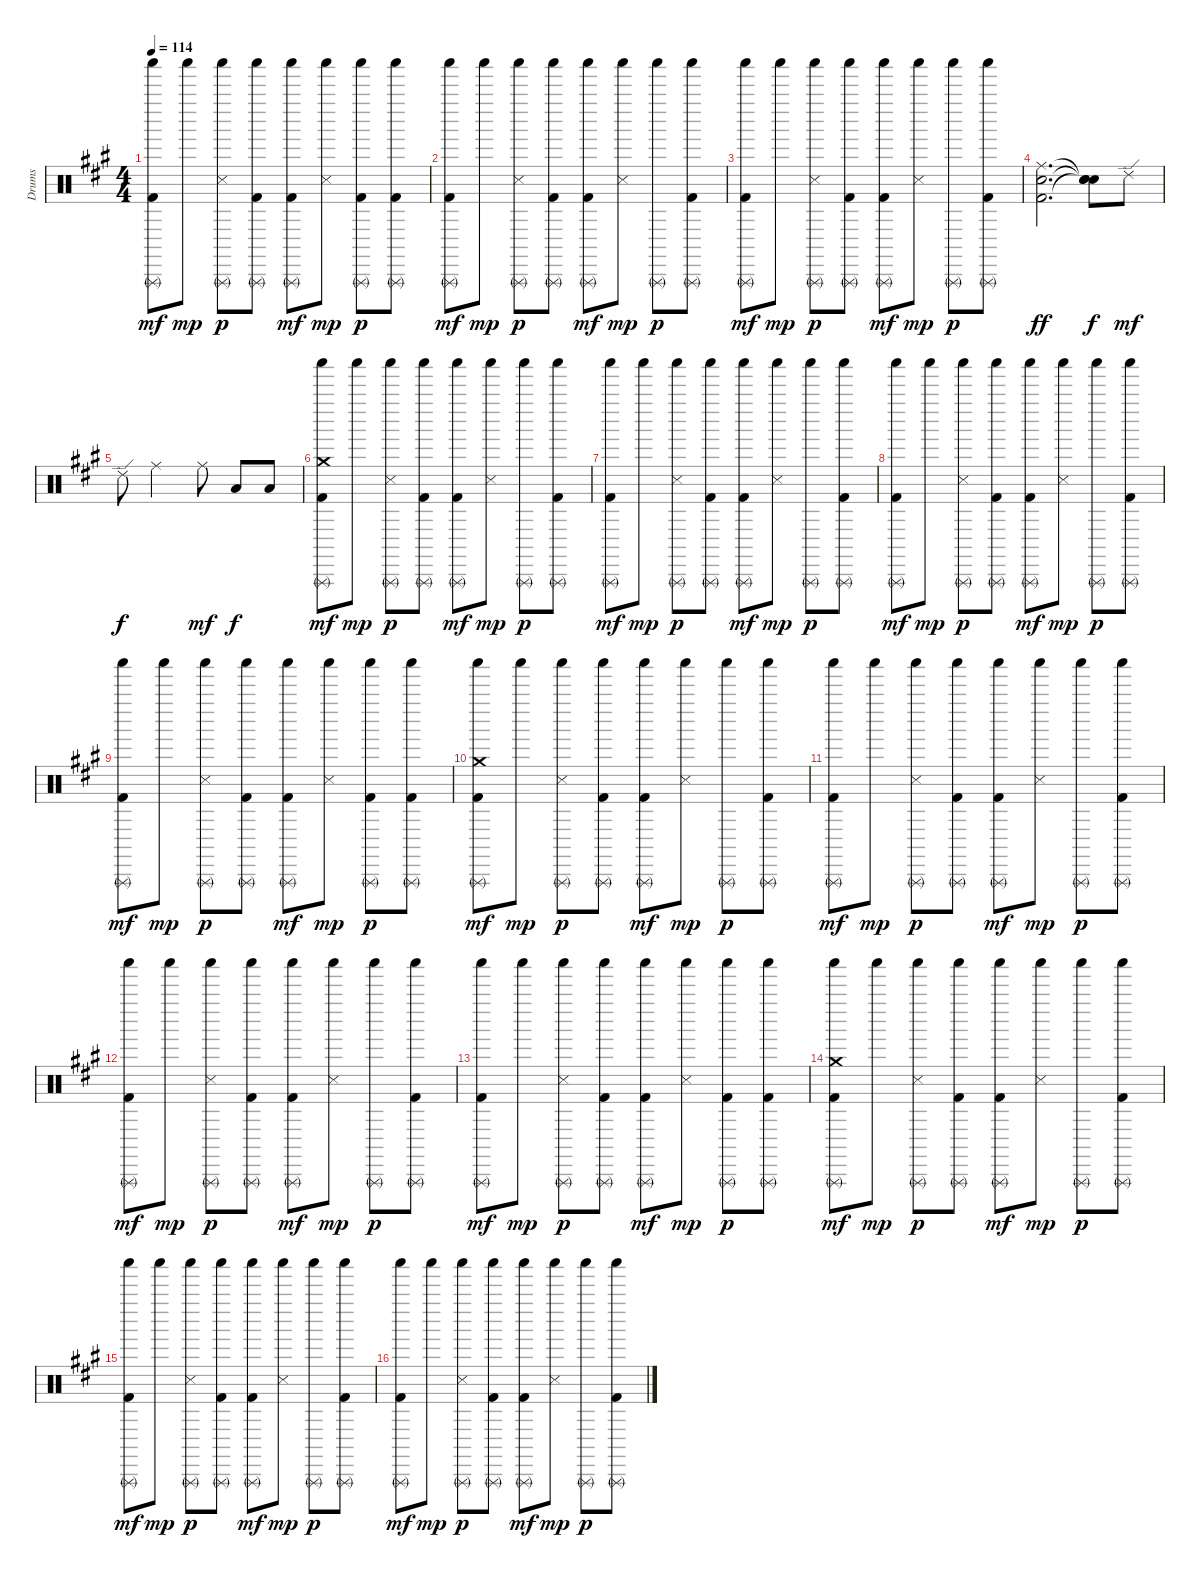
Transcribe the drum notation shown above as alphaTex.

\track ("Drums" "Drums") {instrument percussion}
\staff {score}
\articulation defaults
\ts (4 4)
\tempo 114
\clef neutral
\ks a
("Kick (hit) 2" "Triangle (rnute)" "Shaker (hit)").8{dy mf} "Shaker (hit)".8{dy mp} ("Snare (side stick) 3" "Triangle (rnute)" "Shaker (hit)").8{dy p} ("Kick (hit) 2" "Triangle (rnute)" "Shaker (hit)").8 ("Kick (hit) 2" "Triangle (rnute)" "Shaker (hit)").8{dy mf} ("Snare (side stick) 3" "Shaker (hit)").8{dy mp} ("Kick (hit) 2" "Triangle (rnute)" "Shaker (hit)").8{dy p} ("Kick (hit) 2" "Triangle (rnute)" "Shaker (hit)").8 |
("Kick (hit) 2" "Triangle (rnute)" "Shaker (hit)").8{dy mf} "Shaker (hit)".8{dy mp} ("Snare (side stick) 3" "Triangle (rnute)" "Shaker (hit)").8{dy p} ("Kick (hit) 2" "Triangle (rnute)" "Shaker (hit)").8 ("Kick (hit) 2" "Triangle (rnute)" "Shaker (hit)").8{dy mf} ("Snare (side stick) 3" "Shaker (hit)").8{dy mp} ("Triangle (rnute)" "Shaker (hit)").8{dy p} ("Kick (hit) 2" "Triangle (rnute)" "Shaker (hit)").8 |
("Kick (hit) 2" "Triangle (rnute)" "Shaker (hit)").8{dy mf} "Shaker (hit)".8{dy mp} ("Snare (side stick) 3" "Triangle (rnute)" "Shaker (hit)").8{dy p} ("Kick (hit) 2" "Triangle (rnute)" "Shaker (hit)").8 ("Kick (hit) 2" "Triangle (rnute)" "Shaker (hit)").8{dy mf} ("Snare (side stick) 3" "Shaker (hit)").8{dy mp} ("Triangle (rnute)" "Shaker (hit)").8{dy p} ("Kick (hit) 2" "Triangle (rnute)" "Shaker (hit)").8 |
("Kick (hit) 2" "Electric Snare (hit)" "Ride (middle)").2{d dy ff} ("Snare (hit)"{t} "Snare (hit)"{t} "Snare (hit)"{t}).8{dy f} "Ride (edge) 2".8{dy mf} |
"Ride (edge) 2".8{dy f} "Ride (middle)".2 "Ride (middle)".8{dy mf} "Low Floor Tom (hit)".8{dy f} "Low Floor Tom (hit)".8 |
("Kick (hit) 2" "Crash medium (hit)" "Triangle (rnute)" "Shaker (hit)").8{dy mf} "Shaker (hit)".8{dy mp} ("Snare (side stick) 3" "Triangle (rnute)" "Shaker (hit)").8{dy p} ("Kick (hit) 2" "Triangle (rnute)" "Shaker (hit)").8 ("Kick (hit) 2" "Triangle (rnute)" "Shaker (hit)").8{dy mf} ("Snare (side stick) 3" "Shaker (hit)").8{dy mp} ("Triangle (rnute)" "Shaker (hit)").8{dy p} ("Kick (hit) 2" "Triangle (rnute)" "Shaker (hit)").8 |
("Kick (hit) 2" "Triangle (rnute)" "Shaker (hit)").8{dy mf} "Shaker (hit)".8{dy mp} ("Snare (side stick) 3" "Triangle (rnute)" "Shaker (hit)").8{dy p} ("Kick (hit) 2" "Triangle (rnute)" "Shaker (hit)").8 ("Kick (hit) 2" "Triangle (rnute)" "Shaker (hit)").8{dy mf} ("Snare (side stick) 3" "Shaker (hit)").8{dy mp} ("Triangle (rnute)" "Shaker (hit)").8{dy p} ("Kick (hit) 2" "Triangle (rnute)" "Shaker (hit)").8 |
("Kick (hit) 2" "Triangle (rnute)" "Shaker (hit)").8{dy mf} "Shaker (hit)".8{dy mp} ("Snare (side stick) 3" "Triangle (rnute)" "Shaker (hit)").8{dy p} ("Kick (hit) 2" "Triangle (rnute)" "Shaker (hit)").8 ("Kick (hit) 2" "Triangle (rnute)" "Shaker (hit)").8{dy mf} ("Snare (side stick) 3" "Shaker (hit)").8{dy mp} ("Triangle (rnute)" "Shaker (hit)").8{dy p} ("Kick (hit) 2" "Triangle (rnute)" "Shaker (hit)").8 |
("Kick (hit) 2" "Triangle (rnute)" "Shaker (hit)").8{dy mf} "Shaker (hit)".8{dy mp} ("Snare (side stick) 3" "Triangle (rnute)" "Shaker (hit)").8{dy p} ("Kick (hit) 2" "Triangle (rnute)" "Shaker (hit)").8 ("Kick (hit) 2" "Triangle (rnute)" "Shaker (hit)").8{dy mf} ("Snare (side stick) 3" "Shaker (hit)").8{dy mp} ("Kick (hit) 2" "Triangle (rnute)" "Shaker (hit)").8{dy p} ("Kick (hit) 2" "Triangle (rnute)" "Shaker (hit)").8 |
("Kick (hit) 2" "Crash medium (hit)" "Triangle (rnute)" "Shaker (hit)").8{dy mf} "Shaker (hit)".8{dy mp} ("Snare (side stick) 3" "Triangle (rnute)" "Shaker (hit)").8{dy p} ("Kick (hit) 2" "Triangle (rnute)" "Shaker (hit)").8 ("Kick (hit) 2" "Triangle (rnute)" "Shaker (hit)").8{dy mf} ("Snare (side stick) 3" "Shaker (hit)").8{dy mp} ("Triangle (rnute)" "Shaker (hit)").8{dy p} ("Kick (hit) 2" "Triangle (rnute)" "Shaker (hit)").8 |
("Kick (hit) 2" "Triangle (rnute)" "Shaker (hit)").8{dy mf} "Shaker (hit)".8{dy mp} ("Snare (side stick) 3" "Triangle (rnute)" "Shaker (hit)").8{dy p} ("Kick (hit) 2" "Triangle (rnute)" "Shaker (hit)").8 ("Kick (hit) 2" "Triangle (rnute)" "Shaker (hit)").8{dy mf} ("Snare (side stick) 3" "Shaker (hit)").8{dy mp} ("Triangle (rnute)" "Shaker (hit)").8{dy p} ("Kick (hit) 2" "Triangle (rnute)" "Shaker (hit)").8 |
("Kick (hit) 2" "Triangle (rnute)" "Shaker (hit)").8{dy mf} "Shaker (hit)".8{dy mp} ("Snare (side stick) 3" "Triangle (rnute)" "Shaker (hit)").8{dy p} ("Kick (hit) 2" "Triangle (rnute)" "Shaker (hit)").8 ("Kick (hit) 2" "Triangle (rnute)" "Shaker (hit)").8{dy mf} ("Snare (side stick) 3" "Shaker (hit)").8{dy mp} ("Triangle (rnute)" "Shaker (hit)").8{dy p} ("Kick (hit) 2" "Triangle (rnute)" "Shaker (hit)").8 |
("Kick (hit) 2" "Triangle (rnute)" "Shaker (hit)").8{dy mf} "Shaker (hit)".8{dy mp} ("Snare (side stick) 3" "Triangle (rnute)" "Shaker (hit)").8{dy p} ("Kick (hit) 2" "Triangle (rnute)" "Shaker (hit)").8 ("Kick (hit) 2" "Triangle (rnute)" "Shaker (hit)").8{dy mf} ("Snare (side stick) 3" "Shaker (hit)").8{dy mp} ("Kick (hit) 2" "Triangle (rnute)" "Shaker (hit)").8{dy p} ("Kick (hit) 2" "Triangle (rnute)" "Shaker (hit)").8 |
("Kick (hit) 2" "Crash medium (hit)" "Triangle (rnute)" "Shaker (hit)").8{dy mf} "Shaker (hit)".8{dy mp} ("Snare (side stick) 3" "Triangle (rnute)" "Shaker (hit)").8{dy p} ("Kick (hit) 2" "Triangle (rnute)" "Shaker (hit)").8 ("Kick (hit) 2" "Triangle (rnute)" "Shaker (hit)").8{dy mf} ("Snare (side stick) 3" "Shaker (hit)").8{dy mp} ("Triangle (rnute)" "Shaker (hit)").8{dy p} ("Kick (hit) 2" "Triangle (rnute)" "Shaker (hit)").8 |
("Kick (hit) 2" "Triangle (rnute)" "Shaker (hit)").8{dy mf} "Shaker (hit)".8{dy mp} ("Snare (side stick) 3" "Triangle (rnute)" "Shaker (hit)").8{dy p} ("Kick (hit) 2" "Triangle (rnute)" "Shaker (hit)").8 ("Kick (hit) 2" "Triangle (rnute)" "Shaker (hit)").8{dy mf} ("Snare (side stick) 3" "Shaker (hit)").8{dy mp} ("Triangle (rnute)" "Shaker (hit)").8{dy p} ("Kick (hit) 2" "Triangle (rnute)" "Shaker (hit)").8 |
("Kick (hit) 2" "Triangle (rnute)" "Shaker (hit)").8{dy mf} "Shaker (hit)".8{dy mp} ("Snare (side stick) 3" "Triangle (rnute)" "Shaker (hit)").8{dy p} ("Kick (hit) 2" "Triangle (rnute)" "Shaker (hit)").8 ("Kick (hit) 2" "Triangle (rnute)" "Shaker (hit)").8{dy mf} ("Snare (side stick) 3" "Shaker (hit)").8{dy mp} ("Triangle (rnute)" "Shaker (hit)").8{dy p} ("Kick (hit) 2" "Triangle (rnute)" "Shaker (hit)").8
